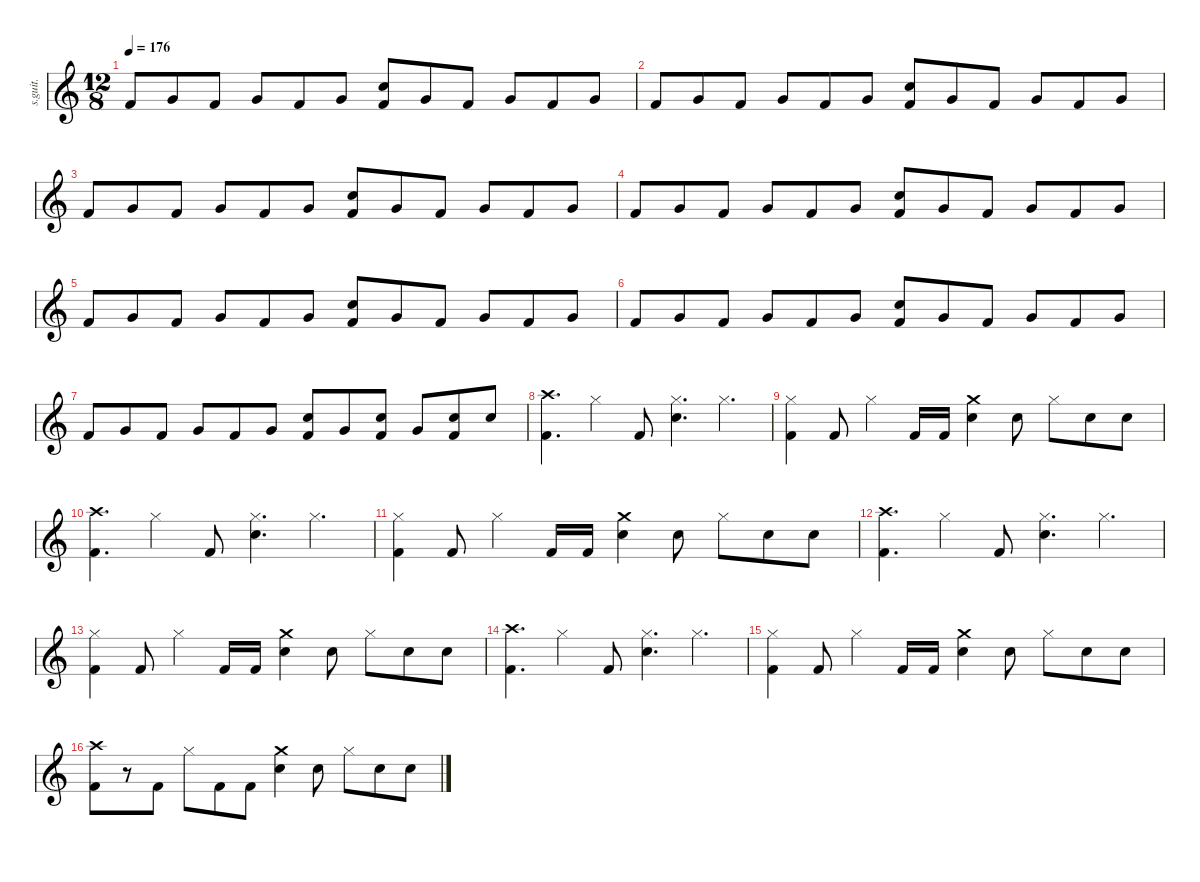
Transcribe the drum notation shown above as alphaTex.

\defaultSystemsLayout 4
\hideDynamics
\bracketExtendMode nobrackets
\track ("Vinnie Paul" "s.guit.") {instrument percussion}
\staff {score}
\articulation defaults
\ts (12 8)
\tempo 176
\clef g2
\ks c "Kick (hit) 2".8{lyrics (0 "") lyrics (1 "") lyrics (2 "") lyrics (3 "") lyrics (4 "") dy f} "Very Low Tom (hit)".8{lyrics (0 "") lyrics (1 "") lyrics (2 "") lyrics (3 "") lyrics (4 "")} "Kick (hit) 2".8{lyrics (0 "") lyrics (1 "") lyrics (2 "") lyrics (3 "") lyrics (4 "")} "Very Low Tom (hit)".8{lyrics (0 "") lyrics (1 "") lyrics (2 "") lyrics (3 "") lyrics (4 "")} "Kick (hit) 2".8{lyrics (0 "") lyrics (1 "") lyrics (2 "") lyrics (3 "") lyrics (4 "")} "Very Low Tom (hit)".8{lyrics (0 "") lyrics (1 "") lyrics (2 "") lyrics (3 "") lyrics (4 "")}
("Snare (hit) 2" "Kick (hit) 2").8{lyrics (0 "") lyrics (1 "") lyrics (2 "") lyrics (3 "") lyrics (4 "")} "Very Low Tom (hit)".8{lyrics (0 "") lyrics (1 "") lyrics (2 "") lyrics (3 "") lyrics (4 "")} "Kick (hit) 2".8{lyrics (0 "") lyrics (1 "") lyrics (2 "") lyrics (3 "") lyrics (4 "")} "Very Low Tom (hit)".8{lyrics (0 "") lyrics (1 "") lyrics (2 "") lyrics (3 "") lyrics (4 "")} "Kick (hit) 2".8{lyrics (0 "") lyrics (1 "") lyrics (2 "") lyrics (3 "") lyrics (4 "")} "Very Low Tom (hit)".8{lyrics (0 "") lyrics (1 "") lyrics (2 "") lyrics (3 "") lyrics (4 "")} |
"Kick (hit) 2".8{lyrics (0 "") lyrics (1 "") lyrics (2 "") lyrics (3 "") lyrics (4 "")} "Very Low Tom (hit)".8{lyrics (0 "") lyrics (1 "") lyrics (2 "") lyrics (3 "") lyrics (4 "")} "Kick (hit) 2".8{lyrics (0 "") lyrics (1 "") lyrics (2 "") lyrics (3 "") lyrics (4 "")} "Very Low Tom (hit)".8{lyrics (0 "") lyrics (1 "") lyrics (2 "") lyrics (3 "") lyrics (4 "")} "Kick (hit) 2".8{lyrics (0 "") lyrics (1 "") lyrics (2 "") lyrics (3 "") lyrics (4 "")} "Very Low Tom (hit)".8{lyrics (0 "") lyrics (1 "") lyrics (2 "") lyrics (3 "") lyrics (4 "")} ("Snare (hit) 2" "Kick (hit) 2").8{lyrics (0 "") lyrics (1 "") lyrics (2 "") lyrics (3 "") lyrics (4 "")} "Very Low Tom (hit)".8{lyrics (0 "") lyrics (1 "") lyrics (2 "") lyrics (3 "") lyrics (4 "")} "Kick (hit) 2".8{lyrics (0 "") lyrics (1 "") lyrics (2 "") lyrics (3 "") lyrics (4 "")} "Very Low Tom (hit)".8{lyrics (0 "") lyrics (1 "") lyrics (2 "") lyrics (3 "") lyrics (4 "")} "Kick (hit) 2".8{lyrics (0 "") lyrics (1 "") lyrics (2 "") lyrics (3 "") lyrics (4 "")} "Very Low Tom (hit)".8{lyrics (0 "") lyrics (1 "") lyrics (2 "") lyrics (3 "") lyrics (4 "")} |
"Kick (hit) 2".8{lyrics (0 "") lyrics (1 "") lyrics (2 "") lyrics (3 "") lyrics (4 "")} "Very Low Tom (hit)".8{lyrics (0 "") lyrics (1 "") lyrics (2 "") lyrics (3 "") lyrics (4 "")} "Kick (hit) 2".8{lyrics (0 "") lyrics (1 "") lyrics (2 "") lyrics (3 "") lyrics (4 "")} "Very Low Tom (hit)".8{lyrics (0 "") lyrics (1 "") lyrics (2 "") lyrics (3 "") lyrics (4 "")} "Kick (hit) 2".8{lyrics (0 "") lyrics (1 "") lyrics (2 "") lyrics (3 "") lyrics (4 "")} "Very Low Tom (hit)".8{lyrics (0 "") lyrics (1 "") lyrics (2 "") lyrics (3 "") lyrics (4 "")} ("Snare (hit) 2" "Kick (hit) 2").8{lyrics (0 "") lyrics (1 "") lyrics (2 "") lyrics (3 "") lyrics (4 "")} "Very Low Tom (hit)".8{lyrics (0 "") lyrics (1 "") lyrics (2 "") lyrics (3 "") lyrics (4 "")} "Kick (hit) 2".8{lyrics (0 "") lyrics (1 "") lyrics (2 "") lyrics (3 "") lyrics (4 "")} "Very Low Tom (hit)".8{lyrics (0 "") lyrics (1 "") lyrics (2 "") lyrics (3 "") lyrics (4 "")} "Kick (hit) 2".8{lyrics (0 "") lyrics (1 "") lyrics (2 "") lyrics (3 "") lyrics (4 "")} "Very Low Tom (hit)".8{lyrics (0 "") lyrics (1 "") lyrics (2 "") lyrics (3 "") lyrics (4 "")} |
"Kick (hit) 2".8{lyrics (0 "") lyrics (1 "") lyrics (2 "") lyrics (3 "") lyrics (4 "")} "Very Low Tom (hit)".8{lyrics (0 "") lyrics (1 "") lyrics (2 "") lyrics (3 "") lyrics (4 "")} "Kick (hit) 2".8{lyrics (0 "") lyrics (1 "") lyrics (2 "") lyrics (3 "") lyrics (4 "")} "Very Low Tom (hit)".8{lyrics (0 "") lyrics (1 "") lyrics (2 "") lyrics (3 "") lyrics (4 "")} "Kick (hit) 2".8{lyrics (0 "") lyrics (1 "") lyrics (2 "") lyrics (3 "") lyrics (4 "")} "Very Low Tom (hit)".8{lyrics (0 "") lyrics (1 "") lyrics (2 "") lyrics (3 "") lyrics (4 "")} ("Snare (hit) 2" "Kick (hit) 2").8{lyrics (0 "") lyrics (1 "") lyrics (2 "") lyrics (3 "") lyrics (4 "")} "Very Low Tom (hit)".8{lyrics (0 "") lyrics (1 "") lyrics (2 "") lyrics (3 "") lyrics (4 "")} "Kick (hit) 2".8{lyrics (0 "") lyrics (1 "") lyrics (2 "") lyrics (3 "") lyrics (4 "")} "Very Low Tom (hit)".8{lyrics (0 "") lyrics (1 "") lyrics (2 "") lyrics (3 "") lyrics (4 "")} "Kick (hit) 2".8{lyrics (0 "") lyrics (1 "") lyrics (2 "") lyrics (3 "") lyrics (4 "")} "Very Low Tom (hit)".8{lyrics (0 "") lyrics (1 "") lyrics (2 "") lyrics (3 "") lyrics (4 "")} |
"Kick (hit) 2".8{lyrics (0 "") lyrics (1 "") lyrics (2 "") lyrics (3 "") lyrics (4 "")} "Very Low Tom (hit)".8{lyrics (0 "") lyrics (1 "") lyrics (2 "") lyrics (3 "") lyrics (4 "")} "Kick (hit) 2".8{lyrics (0 "") lyrics (1 "") lyrics (2 "") lyrics (3 "") lyrics (4 "")} "Very Low Tom (hit)".8{lyrics (0 "") lyrics (1 "") lyrics (2 "") lyrics (3 "") lyrics (4 "")} "Kick (hit) 2".8{lyrics (0 "") lyrics (1 "") lyrics (2 "") lyrics (3 "") lyrics (4 "")} "Very Low Tom (hit)".8{lyrics (0 "") lyrics (1 "") lyrics (2 "") lyrics (3 "") lyrics (4 "")} ("Snare (hit) 2" "Kick (hit) 2").8{lyrics (0 "") lyrics (1 "") lyrics (2 "") lyrics (3 "") lyrics (4 "")} "Very Low Tom (hit)".8{lyrics (0 "") lyrics (1 "") lyrics (2 "") lyrics (3 "") lyrics (4 "")} "Kick (hit) 2".8{lyrics (0 "") lyrics (1 "") lyrics (2 "") lyrics (3 "") lyrics (4 "")} "Very Low Tom (hit)".8{lyrics (0 "") lyrics (1 "") lyrics (2 "") lyrics (3 "") lyrics (4 "")} "Kick (hit) 2".8{lyrics (0 "") lyrics (1 "") lyrics (2 "") lyrics (3 "") lyrics (4 "")} "Very Low Tom (hit)".8{lyrics (0 "") lyrics (1 "") lyrics (2 "") lyrics (3 "") lyrics (4 "")} |
"Kick (hit) 2".8{lyrics (0 "") lyrics (1 "") lyrics (2 "") lyrics (3 "") lyrics (4 "")} "Very Low Tom (hit)".8{lyrics (0 "") lyrics (1 "") lyrics (2 "") lyrics (3 "") lyrics (4 "")} "Kick (hit) 2".8{lyrics (0 "") lyrics (1 "") lyrics (2 "") lyrics (3 "") lyrics (4 "")} "Very Low Tom (hit)".8{lyrics (0 "") lyrics (1 "") lyrics (2 "") lyrics (3 "") lyrics (4 "")} "Kick (hit) 2".8{lyrics (0 "") lyrics (1 "") lyrics (2 "") lyrics (3 "") lyrics (4 "")} "Very Low Tom (hit)".8{lyrics (0 "") lyrics (1 "") lyrics (2 "") lyrics (3 "") lyrics (4 "")} ("Snare (hit) 2" "Kick (hit) 2").8{lyrics (0 "") lyrics (1 "") lyrics (2 "") lyrics (3 "") lyrics (4 "")} "Very Low Tom (hit)".8{lyrics (0 "") lyrics (1 "") lyrics (2 "") lyrics (3 "") lyrics (4 "")} "Kick (hit) 2".8{lyrics (0 "") lyrics (1 "") lyrics (2 "") lyrics (3 "") lyrics (4 "")} "Very Low Tom (hit)".8{lyrics (0 "") lyrics (1 "") lyrics (2 "") lyrics (3 "") lyrics (4 "")} "Kick (hit) 2".8{lyrics (0 "") lyrics (1 "") lyrics (2 "") lyrics (3 "") lyrics (4 "")} "Very Low Tom (hit)".8{lyrics (0 "") lyrics (1 "") lyrics (2 "") lyrics (3 "") lyrics (4 "")} |
"Kick (hit) 2".8{lyrics (0 "") lyrics (1 "") lyrics (2 "") lyrics (3 "") lyrics (4 "")} "Very Low Tom (hit)".8{lyrics (0 "") lyrics (1 "") lyrics (2 "") lyrics (3 "") lyrics (4 "")} "Kick (hit) 2".8{lyrics (0 "") lyrics (1 "") lyrics (2 "") lyrics (3 "") lyrics (4 "")} "Very Low Tom (hit)".8{lyrics (0 "") lyrics (1 "") lyrics (2 "") lyrics (3 "") lyrics (4 "")} "Kick (hit) 2".8{lyrics (0 "") lyrics (1 "") lyrics (2 "") lyrics (3 "") lyrics (4 "")} "Very Low Tom (hit)".8{lyrics (0 "") lyrics (1 "") lyrics (2 "") lyrics (3 "") lyrics (4 "")} ("Snare (hit) 2" "Kick (hit) 2").8{lyrics (0 "") lyrics (1 "") lyrics (2 "") lyrics (3 "") lyrics (4 "")} "Very Low Tom (hit)".8{lyrics (0 "") lyrics (1 "") lyrics (2 "") lyrics (3 "") lyrics (4 "")} ("Snare (hit) 2" "Kick (hit) 2").8{lyrics (0 "") lyrics (1 "") lyrics (2 "") lyrics (3 "") lyrics (4 "")} "Very Low Tom (hit)".8{lyrics (0 "") lyrics (1 "") lyrics (2 "") lyrics (3 "") lyrics (4 "")} ("Snare (hit) 2" "Kick (hit) 2").8{lyrics (0 "") lyrics (1 "") lyrics (2 "") lyrics (3 "") lyrics (4 "")} "Snare (hit) 2".8{lyrics (0 "") lyrics (1 "") lyrics (2 "") lyrics (3 "") lyrics (4 "")} |
("Crash high (hit)" "Kick (hit) 2").4{d lyrics (0 "") lyrics (1 "") lyrics (2 "") lyrics (3 "") lyrics (4 "")} "Hi-Hat (closed)".4{lyrics (0 "") lyrics (1 "") lyrics (2 "") lyrics (3 "") lyrics (4 "")} "Kick (hit) 2".8{lyrics (0 "") lyrics (1 "") lyrics (2 "") lyrics (3 "") lyrics (4 "")} ("Hi-Hat (closed)" "Snare (hit) 2").4{d lyrics (0 "") lyrics (1 "") lyrics (2 "") lyrics (3 "") lyrics (4 "")} "Hi-Hat (closed)".4{d lyrics (0 "") lyrics (1 "") lyrics (2 "") lyrics (3 "") lyrics (4 "")} |
("Hi-Hat (closed)" "Kick (hit) 2").4{lyrics (0 "") lyrics (1 "") lyrics (2 "") lyrics (3 "") lyrics (4 "")} "Kick (hit) 2".8{lyrics (0 "") lyrics (1 "") lyrics (2 "") lyrics (3 "") lyrics (4 "")} "Hi-Hat (closed)".4{lyrics (0 "") lyrics (1 "") lyrics (2 "") lyrics (3 "") lyrics (4 "")} "Kick (hit) 2".16{lyrics (0 "") lyrics (1 "") lyrics (2 "") lyrics (3 "") lyrics (4 "")} "Kick (hit) 2".16{lyrics (0 "") lyrics (1 "") lyrics (2 "") lyrics (3 "") lyrics (4 "")} ("Crash medium (hit)" "Snare (hit) 2").4{lyrics (0 "") lyrics (1 "") lyrics (2 "") lyrics (3 "") lyrics (4 "")} "Snare (hit) 2".8{lyrics (0 "") lyrics (1 "") lyrics (2 "") lyrics (3 "") lyrics (4 "")} "Hi-Hat (closed)".8{lyrics (0 "") lyrics (1 "") lyrics (2 "") lyrics (3 "") lyrics (4 "")} "Snare (hit) 2".8{lyrics (0 "") lyrics (1 "") lyrics (2 "") lyrics (3 "") lyrics (4 "")} "Snare (hit) 2".8{lyrics (0 "") lyrics (1 "") lyrics (2 "") lyrics (3 "") lyrics (4 "")} |
("Crash high (hit)" "Kick (hit) 2").4{d lyrics (0 "") lyrics (1 "") lyrics (2 "") lyrics (3 "") lyrics (4 "")} "Hi-Hat (closed)".4{lyrics (0 "") lyrics (1 "") lyrics (2 "") lyrics (3 "") lyrics (4 "")} "Kick (hit) 2".8{lyrics (0 "") lyrics (1 "") lyrics (2 "") lyrics (3 "") lyrics (4 "")} ("Hi-Hat (closed)" "Snare (hit) 2").4{d lyrics (0 "") lyrics (1 "") lyrics (2 "") lyrics (3 "") lyrics (4 "")} "Hi-Hat (closed)".4{d lyrics (0 "") lyrics (1 "") lyrics (2 "") lyrics (3 "") lyrics (4 "")} |
("Hi-Hat (closed)" "Kick (hit) 2").4{lyrics (0 "") lyrics (1 "") lyrics (2 "") lyrics (3 "") lyrics (4 "")} "Kick (hit) 2".8{lyrics (0 "") lyrics (1 "") lyrics (2 "") lyrics (3 "") lyrics (4 "")} "Hi-Hat (closed)".4{lyrics (0 "") lyrics (1 "") lyrics (2 "") lyrics (3 "") lyrics (4 "")} "Kick (hit) 2".16{lyrics (0 "") lyrics (1 "") lyrics (2 "") lyrics (3 "") lyrics (4 "")} "Kick (hit) 2".16{lyrics (0 "") lyrics (1 "") lyrics (2 "") lyrics (3 "") lyrics (4 "")} ("Crash medium (hit)" "Snare (hit) 2").4{lyrics (0 "") lyrics (1 "") lyrics (2 "") lyrics (3 "") lyrics (4 "")} "Snare (hit) 2".8{lyrics (0 "") lyrics (1 "") lyrics (2 "") lyrics (3 "") lyrics (4 "")} "Hi-Hat (closed)".8{lyrics (0 "") lyrics (1 "") lyrics (2 "") lyrics (3 "") lyrics (4 "")} "Snare (hit) 2".8{lyrics (0 "") lyrics (1 "") lyrics (2 "") lyrics (3 "") lyrics (4 "")} "Snare (hit) 2".8{lyrics (0 "") lyrics (1 "") lyrics (2 "") lyrics (3 "") lyrics (4 "")} |
("Crash high (hit)" "Kick (hit) 2").4{d lyrics (0 "") lyrics (1 "") lyrics (2 "") lyrics (3 "") lyrics (4 "")} "Hi-Hat (closed)".4{lyrics (0 "") lyrics (1 "") lyrics (2 "") lyrics (3 "") lyrics (4 "")} "Kick (hit) 2".8{lyrics (0 "") lyrics (1 "") lyrics (2 "") lyrics (3 "") lyrics (4 "")} ("Hi-Hat (closed)" "Snare (hit) 2").4{d lyrics (0 "") lyrics (1 "") lyrics (2 "") lyrics (3 "") lyrics (4 "")} "Hi-Hat (closed)".4{d lyrics (0 "") lyrics (1 "") lyrics (2 "") lyrics (3 "") lyrics (4 "")} |
("Hi-Hat (closed)" "Kick (hit) 2").4{lyrics (0 "") lyrics (1 "") lyrics (2 "") lyrics (3 "") lyrics (4 "")} "Kick (hit) 2".8{lyrics (0 "") lyrics (1 "") lyrics (2 "") lyrics (3 "") lyrics (4 "")} "Hi-Hat (closed)".4{lyrics (0 "") lyrics (1 "") lyrics (2 "") lyrics (3 "") lyrics (4 "")} "Kick (hit) 2".16{lyrics (0 "") lyrics (1 "") lyrics (2 "") lyrics (3 "") lyrics (4 "")} "Kick (hit) 2".16{lyrics (0 "") lyrics (1 "") lyrics (2 "") lyrics (3 "") lyrics (4 "")} ("Crash medium (hit)" "Snare (hit) 2").4{lyrics (0 "") lyrics (1 "") lyrics (2 "") lyrics (3 "") lyrics (4 "")} "Snare (hit) 2".8{lyrics (0 "") lyrics (1 "") lyrics (2 "") lyrics (3 "") lyrics (4 "")} "Hi-Hat (closed)".8{lyrics (0 "") lyrics (1 "") lyrics (2 "") lyrics (3 "") lyrics (4 "")} "Snare (hit) 2".8{lyrics (0 "") lyrics (1 "") lyrics (2 "") lyrics (3 "") lyrics (4 "")} "Snare (hit) 2".8{lyrics (0 "") lyrics (1 "") lyrics (2 "") lyrics (3 "") lyrics (4 "")} |
("Crash high (hit)" "Kick (hit) 2").4{d lyrics (0 "") lyrics (1 "") lyrics (2 "") lyrics (3 "") lyrics (4 "")} "Hi-Hat (closed)".4{lyrics (0 "") lyrics (1 "") lyrics (2 "") lyrics (3 "") lyrics (4 "")} "Kick (hit) 2".8{lyrics (0 "") lyrics (1 "") lyrics (2 "") lyrics (3 "") lyrics (4 "")} ("Hi-Hat (closed)" "Snare (hit) 2").4{d lyrics (0 "") lyrics (1 "") lyrics (2 "") lyrics (3 "") lyrics (4 "")} "Hi-Hat (closed)".4{d lyrics (0 "") lyrics (1 "") lyrics (2 "") lyrics (3 "") lyrics (4 "")} |
("Hi-Hat (closed)" "Kick (hit) 2").4{lyrics (0 "") lyrics (1 "") lyrics (2 "") lyrics (3 "") lyrics (4 "")} "Kick (hit) 2".8{lyrics (0 "") lyrics (1 "") lyrics (2 "") lyrics (3 "") lyrics (4 "")} "Hi-Hat (closed)".4{lyrics (0 "") lyrics (1 "") lyrics (2 "") lyrics (3 "") lyrics (4 "")} "Kick (hit) 2".16{lyrics (0 "") lyrics (1 "") lyrics (2 "") lyrics (3 "") lyrics (4 "")} "Kick (hit) 2".16{lyrics (0 "") lyrics (1 "") lyrics (2 "") lyrics (3 "") lyrics (4 "")} ("Crash medium (hit)" "Snare (hit) 2").4{lyrics (0 "") lyrics (1 "") lyrics (2 "") lyrics (3 "") lyrics (4 "")} "Snare (hit) 2".8{lyrics (0 "") lyrics (1 "") lyrics (2 "") lyrics (3 "") lyrics (4 "")} "Hi-Hat (closed)".8{lyrics (0 "") lyrics (1 "") lyrics (2 "") lyrics (3 "") lyrics (4 "")} "Snare (hit) 2".8{lyrics (0 "") lyrics (1 "") lyrics (2 "") lyrics (3 "") lyrics (4 "")} "Snare (hit) 2".8{lyrics (0 "") lyrics (1 "") lyrics (2 "") lyrics (3 "") lyrics (4 "")} |
("Crash high (hit)" "Kick (hit) 2").8{lyrics (0 "") lyrics (1 "") lyrics (2 "") lyrics (3 "") lyrics (4 "")} r.8 "Kick (hit) 2".8{lyrics (0 "") lyrics (1 "") lyrics (2 "") lyrics (3 "") lyrics (4 "")} "Hi-Hat (closed)".8{lyrics (0 "") lyrics (1 "") lyrics (2 "") lyrics (3 "") lyrics (4 "")} "Kick (hit) 2".8{lyrics (0 "") lyrics (1 "") lyrics (2 "") lyrics (3 "") lyrics (4 "")} "Kick (hit) 2".8{lyrics (0 "") lyrics (1 "") lyrics (2 "") lyrics (3 "") lyrics (4 "")} ("Crash medium (hit)" "Snare (hit) 2").4{lyrics (0 "") lyrics (1 "") lyrics (2 "") lyrics (3 "") lyrics (4 "")} "Snare (hit) 2".8{lyrics (0 "") lyrics (1 "") lyrics (2 "") lyrics (3 "") lyrics (4 "")} "Hi-Hat (closed)".8{lyrics (0 "") lyrics (1 "") lyrics (2 "") lyrics (3 "") lyrics (4 "")} "Snare (hit) 2".8{lyrics (0 "") lyrics (1 "") lyrics (2 "") lyrics (3 "") lyrics (4 "")} "Snare (hit) 2".8{lyrics (0 "") lyrics (1 "") lyrics (2 "") lyrics (3 "") lyrics (4 "")}
